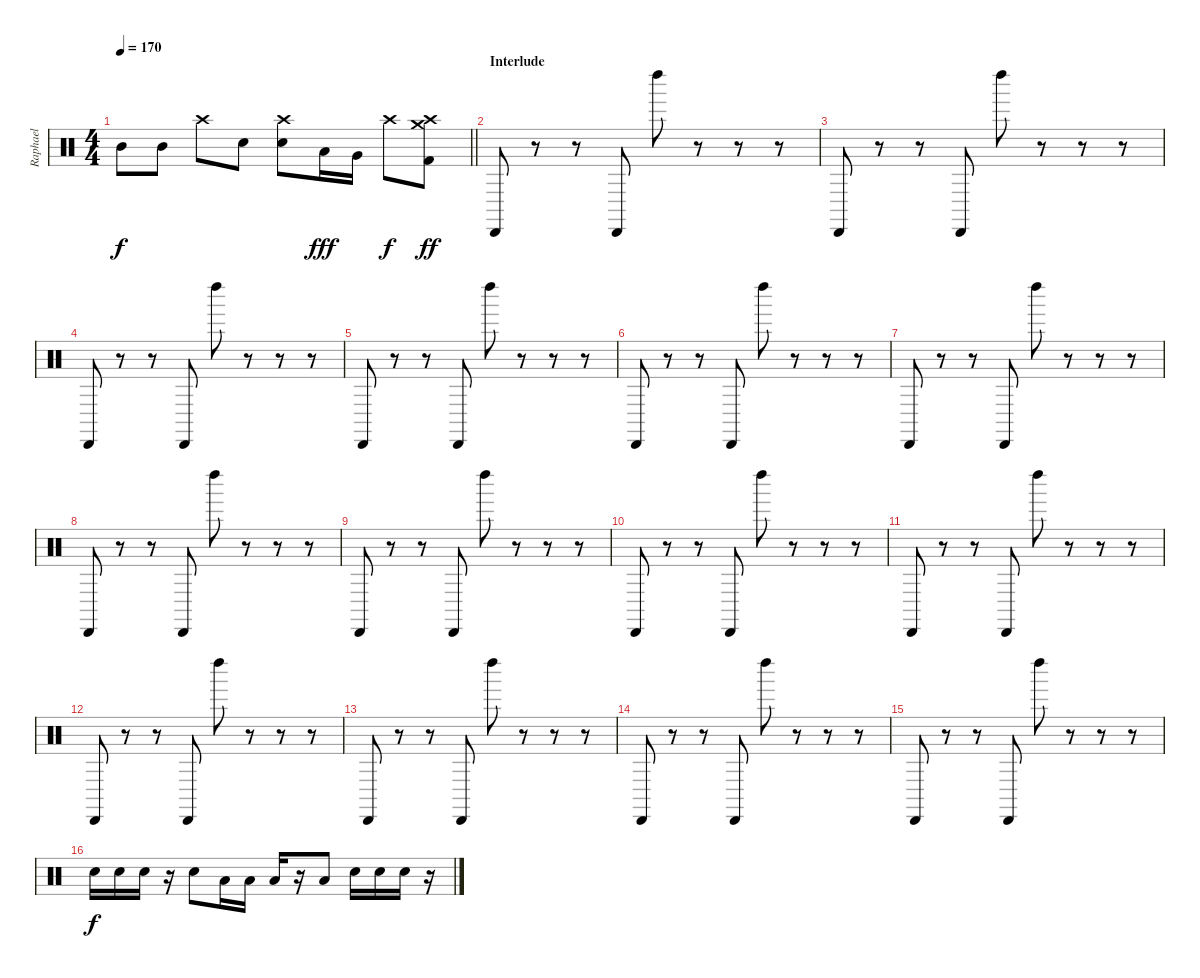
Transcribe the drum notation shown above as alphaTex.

\track ("Raphael" "Raphael") {instrument percussion}
\staff {score}
\articulation defaults
\ts (4 4)
\tempo 170
\clef neutral
\barLineRight lightlight
\ks c "Mid Tom (hit)".8{dy f} "Mid Tom (hit)".8 "Crash high (hit)".8 "Snare (hit) 2".8
("Snare (hit) 2" "Crash high (hit)").8 "Low Tom (hit)".16{dy fff} "Very Low Tom (hit)".16 "Crash high (hit)".8{dy f} ("Kick (hit) 2" "Crash high (hit)" "Crash medium (hit)").8{dy ff} |
\section ("" "Interlude")
"Cabasa (hit)".8 r.8 r.8 "Cabasa (hit)".8 "Left Maraca (hit)".8 r.8 r.8 r.8 |
"Cabasa (hit)".8 r.8 r.8 "Cabasa (hit)".8 "Left Maraca (hit)".8 r.8 r.8 r.8 |
"Cabasa (hit)".8 r.8 r.8 "Cabasa (hit)".8 "Left Maraca (hit)".8 r.8 r.8 r.8 |
"Cabasa (hit)".8 r.8 r.8 "Cabasa (hit)".8 "Left Maraca (hit)".8 r.8 r.8 r.8 |
"Cabasa (hit)".8 r.8 r.8 "Cabasa (hit)".8 "Left Maraca (hit)".8 r.8 r.8 r.8 |
"Cabasa (hit)".8 r.8 r.8 "Cabasa (hit)".8 "Left Maraca (hit)".8 r.8 r.8 r.8 |
"Cabasa (hit)".8 r.8 r.8 "Cabasa (hit)".8 "Left Maraca (hit)".8 r.8 r.8 r.8 |
"Cabasa (hit)".8 r.8 r.8 "Cabasa (hit)".8 "Left Maraca (hit)".8 r.8 r.8 r.8 |
"Cabasa (hit)".8 r.8 r.8 "Cabasa (hit)".8 "Left Maraca (hit)".8 r.8 r.8 r.8 |
"Cabasa (hit)".8 r.8 r.8 "Cabasa (hit)".8 "Left Maraca (hit)".8 r.8 r.8 r.8 |
"Cabasa (hit)".8 r.8 r.8 "Cabasa (hit)".8 "Left Maraca (hit)".8 r.8 r.8 r.8 |
"Cabasa (hit)".8 r.8 r.8 "Cabasa (hit)".8 "Left Maraca (hit)".8 r.8 r.8 r.8 |
"Cabasa (hit)".8 r.8 r.8 "Cabasa (hit)".8 "Left Maraca (hit)".8 r.8 r.8 r.8 |
"Cabasa (hit)".8 r.8 r.8 "Cabasa (hit)".8 "Left Maraca (hit)".8 r.8 r.8 r.8 |
"Snare (hit) 2".16{dy f} "Snare (hit) 2".16 "Snare (hit) 2".16 r.16 "Snare (hit) 2".8 "Low Tom (hit)".16 "Low Tom (hit)".16 "Low Tom (hit)".16 r.16 "Low Tom (hit)".8 "Snare (hit) 2".16 "Snare (hit) 2".16 "Snare (hit) 2".16 r.16
